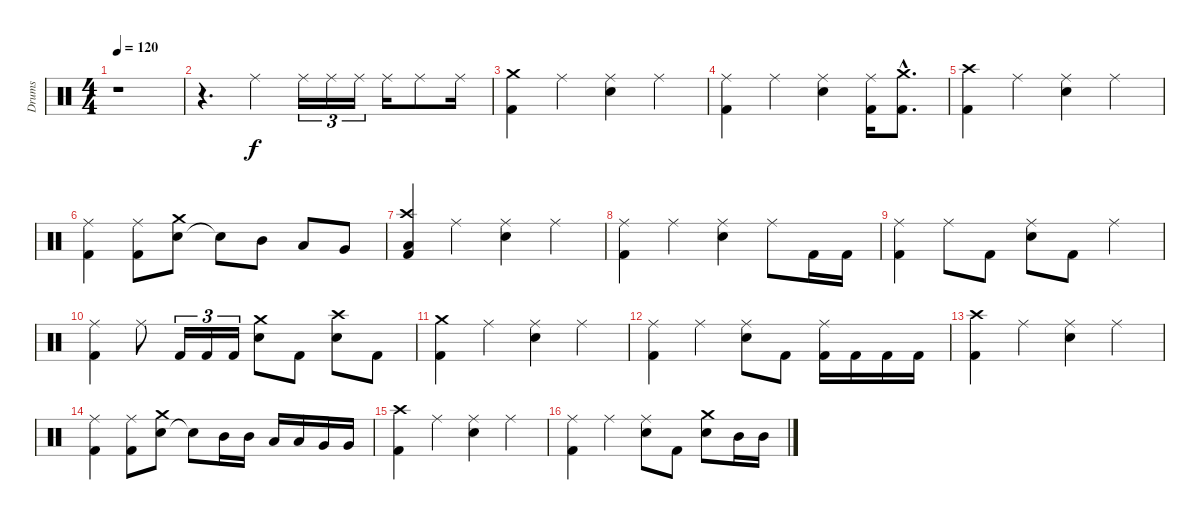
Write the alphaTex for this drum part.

\track ("Drums" "Drums") {instrument percussion}
\staff {score}
\articulation defaults
\ts (4 4)
\tempo 120
\clef neutral
\ks c
r.1{dy fff} |
r.4{d} "Ride (middle)".4{dy f} "Ride (middle)".16{tu (3 2)} "Ride (middle)".16{tu (3 2)} "Ride (middle)".16{tu (3 2)} "Ride (middle)".16 "Ride (middle)".8 "Ride (middle)".16 |
("Kick (hit) 2" "Crash medium (hit)").4 "Ride (middle)".4 ("Electric Snare (hit)" "Ride (middle)").4 "Ride (middle)".4 |
("Kick (hit) 2" "Ride (middle)").4 "Ride (middle)".4 ("Electric Snare (hit)" "Ride (middle)").4 ("Kick (hit) 2" "Ride (middle)").16 ("Kick (hit) 2"{hac} "Crash medium (hit)"{hac}).8{d} |
("Kick (hit) 2" "Crash high (hit)").4 "Ride (middle)".4 ("Electric Snare (hit)" "Ride (middle)").4 "Ride (middle)".4 |
("Kick (hit) 2" "Ride (middle)").4 ("Kick (hit) 2" "Ride (middle)").8 ("Electric Snare (hit)" "Crash medium (hit)").8 "Snare (hit)"{t}.8 "Mid Tom (hit)".8 "Low Tom (hit)".8 "Very Low Tom (hit)".8 |
("Kick (hit) 2" "Low Floor Tom (hit)" "Crash high (hit)").4 "Ride (middle)".4 ("Electric Snare (hit)" "Ride (middle)").4 "Ride (middle)".4 |
("Kick (hit) 2" "Ride (middle)").4 "Ride (middle)".4 ("Electric Snare (hit)" "Ride (middle)").4 "Ride (middle)".8 "Kick (hit) 2".16 "Kick (hit) 2".16 |
("Kick (hit) 2" "Ride (middle)").4 "Ride (middle)".8 "Kick (hit) 2".8 ("Electric Snare (hit)" "Ride (middle)").8 "Kick (hit) 2".8 "Ride (middle)".4 |
("Kick (hit) 2" "Ride (middle)").4 "Ride (middle)".8 "Kick (hit) 2".16{tu (3 2)} "Kick (hit) 2".16{tu (3 2)} "Kick (hit) 2".16{tu (3 2)} ("Electric Snare (hit)" "Crash medium (hit)").8 "Kick (hit) 2".8 ("Electric Snare (hit)" "Crash high (hit)").8 "Kick (hit) 2".8 |
("Kick (hit) 2" "Crash medium (hit)").4 "Ride (middle)".4 ("Electric Snare (hit)" "Ride (middle)").4 "Ride (middle)".4 |
("Kick (hit) 2" "Ride (middle)").4 "Ride (middle)".4 ("Electric Snare (hit)" "Ride (middle)").8 "Kick (hit) 2".8 ("Kick (hit) 2" "Ride (middle)").16 "Kick (hit) 2".16 "Kick (hit) 2".16 "Kick (hit) 2".16 |
("Kick (hit) 2" "Crash high (hit)").4 "Ride (middle)".4 ("Electric Snare (hit)" "Ride (middle)").4 "Ride (middle)".4 |
("Kick (hit) 2" "Ride (middle)").4 ("Kick (hit) 2" "Ride (middle)").8 ("Electric Snare (hit)" "Crash medium (hit)").8 "Snare (hit)"{t}.8 "Mid Tom (hit)".16 "Mid Tom (hit)".16 "Low Tom (hit)".16 "Low Tom (hit)".16 "Very Low Tom (hit)".16 "Very Low Tom (hit)".16 |
("Kick (hit) 2" "Crash high (hit)").4 "Ride (middle)".4 ("Electric Snare (hit)" "Ride (middle)").4 "Ride (middle)".4 |
("Kick (hit) 2" "Ride (middle)").4 "Ride (middle)".4 ("Electric Snare (hit)" "Ride (middle)").8 "Kick (hit) 2".8 ("Electric Snare (hit)" "Crash medium (hit)").8 "Mid Tom (hit)".16 "Mid Tom (hit)".16
